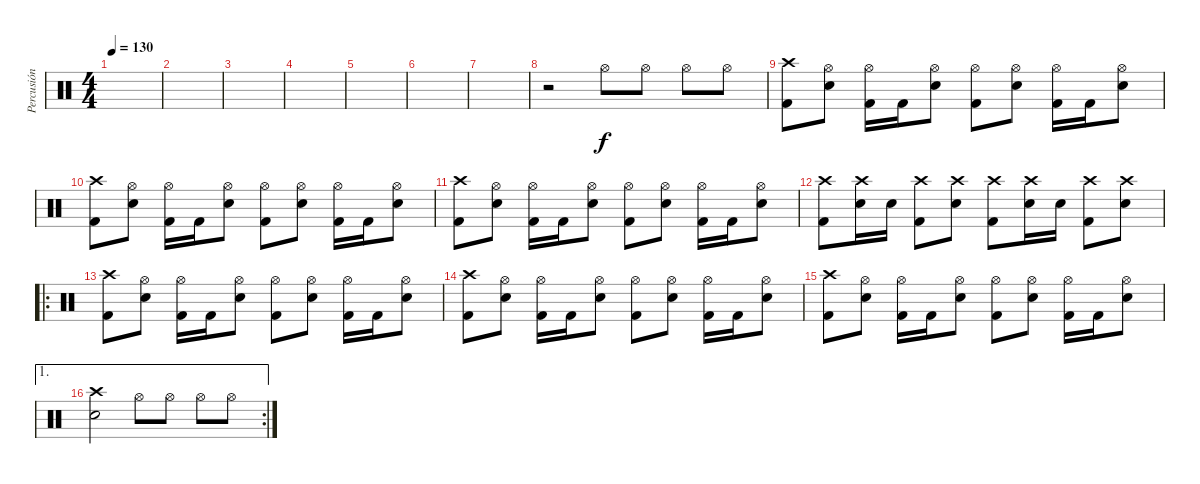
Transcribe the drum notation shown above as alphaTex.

\track ("Percusión" "Percusión") {instrument percussion}
\staff {score}
\articulation defaults
\ts (4 4)
\tempo 130
\clef neutral
\ks c
|
|
|
|
|
|
|
r.2 "Hi-Hat (open)".8 "Hi-Hat (open)".8 "Hi-Hat (open)".8 "Hi-Hat (open)".8 |
("Crash high (hit)" "Kick (hit) 2").8 ("Hi-Hat (open)" "Electric Snare (hit)").8 ("Hi-Hat (open)" "Kick (hit) 2").16 "Kick (hit) 2".16 ("Hi-Hat (open)" "Electric Snare (hit)").8 ("Hi-Hat (open)" "Kick (hit) 2").8 ("Hi-Hat (open)" "Electric Snare (hit)").8 ("Hi-Hat (open)" "Kick (hit) 2").16 "Kick (hit) 2".16 ("Hi-Hat (open)" "Electric Snare (hit)").8 |
("Crash high (hit)" "Kick (hit) 2").8 ("Hi-Hat (open)" "Electric Snare (hit)").8 ("Hi-Hat (open)" "Kick (hit) 2").16 "Kick (hit) 2".16 ("Hi-Hat (open)" "Electric Snare (hit)").8 ("Hi-Hat (open)" "Kick (hit) 2").8 ("Hi-Hat (open)" "Electric Snare (hit)").8 ("Hi-Hat (open)" "Kick (hit) 2").16 "Kick (hit) 2".16 ("Hi-Hat (open)" "Electric Snare (hit)").8 |
("Crash high (hit)" "Kick (hit) 2").8 ("Hi-Hat (open)" "Electric Snare (hit)").8 ("Hi-Hat (open)" "Kick (hit) 2").16 "Kick (hit) 2".16 ("Hi-Hat (open)" "Electric Snare (hit)").8 ("Hi-Hat (open)" "Kick (hit) 2").8 ("Hi-Hat (open)" "Electric Snare (hit)").8 ("Hi-Hat (open)" "Kick (hit) 2").16 "Kick (hit) 2".16 ("Hi-Hat (open)" "Electric Snare (hit)").8 |
("Crash high (hit)" "Kick (hit) 2").8 ("Crash high (hit)" "Electric Snare (hit)").16 "Electric Snare (hit)".16 ("Crash high (hit)" "Kick (hit) 2").8 ("Crash high (hit)" "Electric Snare (hit)").8 ("Crash high (hit)" "Kick (hit) 2").8 ("Crash high (hit)" "Electric Snare (hit)").16 "Electric Snare (hit)".16 ("Crash high (hit)" "Kick (hit) 2").8 ("Crash high (hit)" "Electric Snare (hit)").8 |
\ro
("Crash high (hit)" "Kick (hit) 2").8 ("Hi-Hat (open)" "Electric Snare (hit)").8 ("Hi-Hat (open)" "Kick (hit) 2").16 "Kick (hit) 2".16 ("Hi-Hat (open)" "Electric Snare (hit)").8 ("Hi-Hat (open)" "Kick (hit) 2").8 ("Hi-Hat (open)" "Electric Snare (hit)").8 ("Hi-Hat (open)" "Kick (hit) 2").16 "Kick (hit) 2".16 ("Hi-Hat (open)" "Electric Snare (hit)").8 |
("Crash high (hit)" "Kick (hit) 2").8 ("Hi-Hat (open)" "Electric Snare (hit)").8 ("Hi-Hat (open)" "Kick (hit) 2").16 "Kick (hit) 2".16 ("Hi-Hat (open)" "Electric Snare (hit)").8 ("Hi-Hat (open)" "Kick (hit) 2").8 ("Hi-Hat (open)" "Electric Snare (hit)").8 ("Hi-Hat (open)" "Kick (hit) 2").16 "Kick (hit) 2".16 ("Hi-Hat (open)" "Electric Snare (hit)").8 |
("Crash high (hit)" "Kick (hit) 2").8 ("Hi-Hat (open)" "Electric Snare (hit)").8 ("Hi-Hat (open)" "Kick (hit) 2").16 "Kick (hit) 2".16 ("Hi-Hat (open)" "Electric Snare (hit)").8 ("Hi-Hat (open)" "Kick (hit) 2").8 ("Hi-Hat (open)" "Electric Snare (hit)").8 ("Hi-Hat (open)" "Kick (hit) 2").16 "Kick (hit) 2".16 ("Hi-Hat (open)" "Electric Snare (hit)").8 |
\ae 1
\rc 2
("Crash high (hit)" "Electric Snare (hit)").2 "Hi-Hat (open)".8 "Hi-Hat (open)".8 "Hi-Hat (open)".8 "Hi-Hat (open)".8
